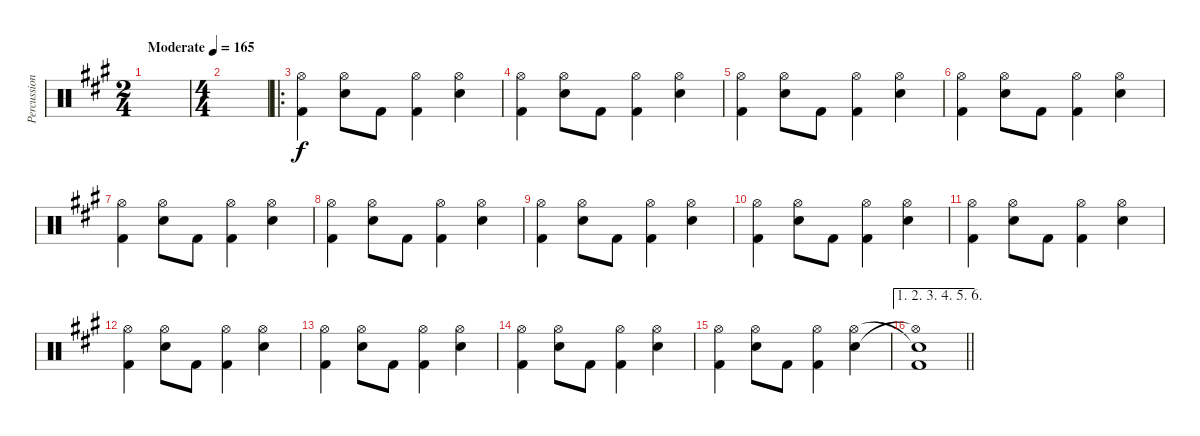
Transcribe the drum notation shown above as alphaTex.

\track ("Percussion" "Percussion") {instrument percussion}
\staff {score}
\articulation defaults
\ts (2 4)
\tempo (165 "Moderate")
\clef neutral
\ks a
|
\ts (4 4)
|
\ro
("Hi-Hat (open)" "Kick (hit) 2").4 ("Hi-Hat (open)" "Snare (hit) 2").8 "Kick (hit) 2".8 ("Hi-Hat (open)" "Kick (hit) 2").4 ("Hi-Hat (open)" "Snare (hit) 2").4 |
("Hi-Hat (open)" "Kick (hit) 2").4 ("Hi-Hat (open)" "Snare (hit) 2").8 "Kick (hit) 2".8 ("Hi-Hat (open)" "Kick (hit) 2").4 ("Hi-Hat (open)" "Snare (hit) 2").4 |
("Hi-Hat (open)" "Kick (hit) 2").4 ("Hi-Hat (open)" "Snare (hit) 2").8 "Kick (hit) 2".8 ("Hi-Hat (open)" "Kick (hit) 2").4 ("Hi-Hat (open)" "Snare (hit) 2").4 |
("Hi-Hat (open)" "Kick (hit) 2").4 ("Hi-Hat (open)" "Snare (hit) 2").8 "Kick (hit) 2".8 ("Hi-Hat (open)" "Kick (hit) 2").4 ("Hi-Hat (open)" "Snare (hit) 2").4 |
("Hi-Hat (open)" "Kick (hit) 2").4 ("Hi-Hat (open)" "Snare (hit) 2").8 "Kick (hit) 2".8 ("Hi-Hat (open)" "Kick (hit) 2").4 ("Hi-Hat (open)" "Snare (hit) 2").4 |
("Hi-Hat (open)" "Kick (hit) 2").4 ("Hi-Hat (open)" "Snare (hit) 2").8 "Kick (hit) 2".8 ("Hi-Hat (open)" "Kick (hit) 2").4 ("Hi-Hat (open)" "Snare (hit) 2").4 |
("Hi-Hat (open)" "Kick (hit) 2").4 ("Hi-Hat (open)" "Snare (hit) 2").8 "Kick (hit) 2".8 ("Hi-Hat (open)" "Kick (hit) 2").4 ("Hi-Hat (open)" "Snare (hit) 2").4 |
("Hi-Hat (open)" "Kick (hit) 2").4 ("Hi-Hat (open)" "Snare (hit) 2").8 "Kick (hit) 2".8 ("Hi-Hat (open)" "Kick (hit) 2").4 ("Hi-Hat (open)" "Snare (hit) 2").4 |
("Hi-Hat (open)" "Kick (hit) 2").4 ("Hi-Hat (open)" "Snare (hit) 2").8 "Kick (hit) 2".8 ("Hi-Hat (open)" "Kick (hit) 2").4 ("Hi-Hat (open)" "Snare (hit) 2").4 |
("Hi-Hat (open)" "Kick (hit) 2").4 ("Hi-Hat (open)" "Snare (hit) 2").8 "Kick (hit) 2".8 ("Hi-Hat (open)" "Kick (hit) 2").4 ("Hi-Hat (open)" "Snare (hit) 2").4 |
("Hi-Hat (open)" "Kick (hit) 2").4 ("Hi-Hat (open)" "Snare (hit) 2").8 "Kick (hit) 2".8 ("Hi-Hat (open)" "Kick (hit) 2").4 ("Hi-Hat (open)" "Snare (hit) 2").4 |
("Hi-Hat (open)" "Kick (hit) 2").4 ("Hi-Hat (open)" "Snare (hit) 2").8 "Kick (hit) 2".8 ("Hi-Hat (open)" "Kick (hit) 2").4 ("Hi-Hat (open)" "Snare (hit) 2").4 |
("Hi-Hat (open)" "Kick (hit) 2").4 ("Hi-Hat (open)" "Snare (hit) 2").8 "Kick (hit) 2".8 ("Hi-Hat (open)" "Kick (hit) 2").4 ("Hi-Hat (open)" "Snare (hit) 2").4 |
\ae (1 2 3 4 5 6)
\barLineRight lightlight
("Snare (hit)"{t} "Hi-Hat (open)"{t} "Kick (hit) 2").1
